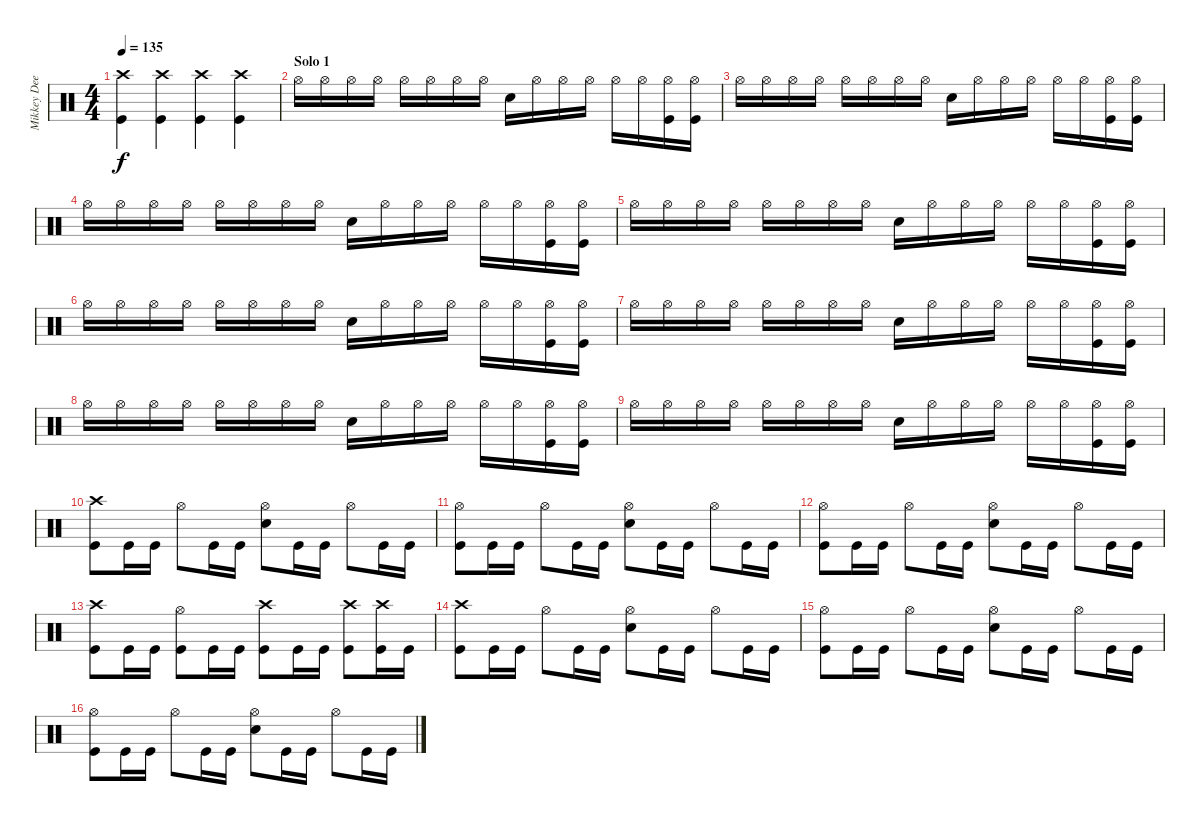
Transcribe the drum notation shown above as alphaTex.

\track ("Mikkey Dee - Drums" "Mikkey Dee") {instrument percussion}
\staff {score}
\articulation defaults
\ts (4 4)
\tempo 135
\clef neutral
\ks c
("Crash high (hit)" "Kick (hit)").4{dy f} ("Kick (hit)" "Crash high (hit)").4 ("Crash high (hit)" "Kick (hit)").4 ("Kick (hit)" "Crash high (hit)").4 |
\section ("" "Solo 1")
"Hi-Hat (open)".16 "Hi-Hat (open)".16 "Hi-Hat (open)".16 "Hi-Hat (open)".16 "Hi-Hat (open)".16 "Hi-Hat (open)".16 "Hi-Hat (open)".16 "Hi-Hat (open)".16 "Snare (hit) 2".16 "Hi-Hat (open)".16 "Hi-Hat (open)".16 "Hi-Hat (open)".16 "Hi-Hat (open)".16 "Hi-Hat (open)".16 ("Hi-Hat (open)" "Kick (hit)").16 ("Hi-Hat (open)" "Kick (hit)").16 |
"Hi-Hat (open)".16 "Hi-Hat (open)".16 "Hi-Hat (open)".16 "Hi-Hat (open)".16 "Hi-Hat (open)".16 "Hi-Hat (open)".16 "Hi-Hat (open)".16 "Hi-Hat (open)".16 "Snare (hit) 2".16 "Hi-Hat (open)".16 "Hi-Hat (open)".16 "Hi-Hat (open)".16 "Hi-Hat (open)".16 "Hi-Hat (open)".16 ("Hi-Hat (open)" "Kick (hit)").16 ("Hi-Hat (open)" "Kick (hit)").16 |
"Hi-Hat (open)".16 "Hi-Hat (open)".16 "Hi-Hat (open)".16 "Hi-Hat (open)".16 "Hi-Hat (open)".16 "Hi-Hat (open)".16 "Hi-Hat (open)".16 "Hi-Hat (open)".16 "Snare (hit) 2".16 "Hi-Hat (open)".16 "Hi-Hat (open)".16 "Hi-Hat (open)".16 "Hi-Hat (open)".16 "Hi-Hat (open)".16 ("Hi-Hat (open)" "Kick (hit)").16 ("Hi-Hat (open)" "Kick (hit)").16 |
"Hi-Hat (open)".16 "Hi-Hat (open)".16 "Hi-Hat (open)".16 "Hi-Hat (open)".16 "Hi-Hat (open)".16 "Hi-Hat (open)".16 "Hi-Hat (open)".16 "Hi-Hat (open)".16 "Snare (hit) 2".16 "Hi-Hat (open)".16 "Hi-Hat (open)".16 "Hi-Hat (open)".16 "Hi-Hat (open)".16 "Hi-Hat (open)".16 ("Hi-Hat (open)" "Kick (hit)").16 ("Hi-Hat (open)" "Kick (hit)").16 |
"Hi-Hat (open)".16 "Hi-Hat (open)".16 "Hi-Hat (open)".16 "Hi-Hat (open)".16 "Hi-Hat (open)".16 "Hi-Hat (open)".16 "Hi-Hat (open)".16 "Hi-Hat (open)".16 "Snare (hit) 2".16 "Hi-Hat (open)".16 "Hi-Hat (open)".16 "Hi-Hat (open)".16 "Hi-Hat (open)".16 "Hi-Hat (open)".16 ("Hi-Hat (open)" "Kick (hit)").16 ("Hi-Hat (open)" "Kick (hit)").16 |
"Hi-Hat (open)".16 "Hi-Hat (open)".16 "Hi-Hat (open)".16 "Hi-Hat (open)".16 "Hi-Hat (open)".16 "Hi-Hat (open)".16 "Hi-Hat (open)".16 "Hi-Hat (open)".16 "Snare (hit) 2".16 "Hi-Hat (open)".16 "Hi-Hat (open)".16 "Hi-Hat (open)".16 "Hi-Hat (open)".16 "Hi-Hat (open)".16 ("Hi-Hat (open)" "Kick (hit)").16 ("Hi-Hat (open)" "Kick (hit)").16 |
"Hi-Hat (open)".16 "Hi-Hat (open)".16 "Hi-Hat (open)".16 "Hi-Hat (open)".16 "Hi-Hat (open)".16 "Hi-Hat (open)".16 "Hi-Hat (open)".16 "Hi-Hat (open)".16 "Snare (hit) 2".16 "Hi-Hat (open)".16 "Hi-Hat (open)".16 "Hi-Hat (open)".16 "Hi-Hat (open)".16 "Hi-Hat (open)".16 ("Hi-Hat (open)" "Kick (hit)").16 ("Hi-Hat (open)" "Kick (hit)").16 |
"Hi-Hat (open)".16 "Hi-Hat (open)".16 "Hi-Hat (open)".16 "Hi-Hat (open)".16 "Hi-Hat (open)".16 "Hi-Hat (open)".16 "Hi-Hat (open)".16 "Hi-Hat (open)".16 "Snare (hit) 2".16 "Hi-Hat (open)".16 "Hi-Hat (open)".16 "Hi-Hat (open)".16 "Hi-Hat (open)".16 "Hi-Hat (open)".16 ("Hi-Hat (open)" "Kick (hit)").16 ("Hi-Hat (open)" "Kick (hit)").16 |
("Crash high (hit)" "Kick (hit)").8 "Kick (hit)".16 "Kick (hit)".16 "Hi-Hat (open)".8 "Kick (hit)".16 "Kick (hit)".16 ("Hi-Hat (open)" "Snare (hit) 2").8 "Kick (hit)".16 "Kick (hit)".16 "Hi-Hat (open)".8 "Kick (hit)".16 "Kick (hit)".16 |
("Hi-Hat (open)" "Kick (hit)").8 "Kick (hit)".16 "Kick (hit)".16 "Hi-Hat (open)".8 "Kick (hit)".16 "Kick (hit)".16 ("Hi-Hat (open)" "Snare (hit) 2").8 "Kick (hit)".16 "Kick (hit)".16 "Hi-Hat (open)".8 "Kick (hit)".16 "Kick (hit)".16 |
("Hi-Hat (open)" "Kick (hit)").8 "Kick (hit)".16 "Kick (hit)".16 "Hi-Hat (open)".8 "Kick (hit)".16 "Kick (hit)".16 ("Hi-Hat (open)" "Snare (hit) 2").8 "Kick (hit)".16 "Kick (hit)".16 "Hi-Hat (open)".8 "Kick (hit)".16 "Kick (hit)".16 |
("Crash high (hit)" "Kick (hit)").8 "Kick (hit)".16 "Kick (hit)".16 ("Hi-Hat (open)" "Kick (hit)").8 "Kick (hit)".16 "Kick (hit)".16 ("Crash high (hit)" "Kick (hit)").8 "Kick (hit)".16 "Kick (hit)".16 ("Crash high (hit)" "Kick (hit)").8 ("Crash high (hit)" "Kick (hit)").16 "Kick (hit)".16 |
("Crash high (hit)" "Kick (hit)").8 "Kick (hit)".16 "Kick (hit)".16 "Hi-Hat (open)".8 "Kick (hit)".16 "Kick (hit)".16 ("Hi-Hat (open)" "Snare (hit) 2").8 "Kick (hit)".16 "Kick (hit)".16 "Hi-Hat (open)".8 "Kick (hit)".16 "Kick (hit)".16 |
("Hi-Hat (open)" "Kick (hit)").8 "Kick (hit)".16 "Kick (hit)".16 "Hi-Hat (open)".8 "Kick (hit)".16 "Kick (hit)".16 ("Hi-Hat (open)" "Snare (hit) 2").8 "Kick (hit)".16 "Kick (hit)".16 "Hi-Hat (open)".8 "Kick (hit)".16 "Kick (hit)".16 |
("Hi-Hat (open)" "Kick (hit)").8 "Kick (hit)".16 "Kick (hit)".16 "Hi-Hat (open)".8 "Kick (hit)".16 "Kick (hit)".16 ("Hi-Hat (open)" "Snare (hit) 2").8 "Kick (hit)".16 "Kick (hit)".16 "Hi-Hat (open)".8 "Kick (hit)".16 "Kick (hit)".16
